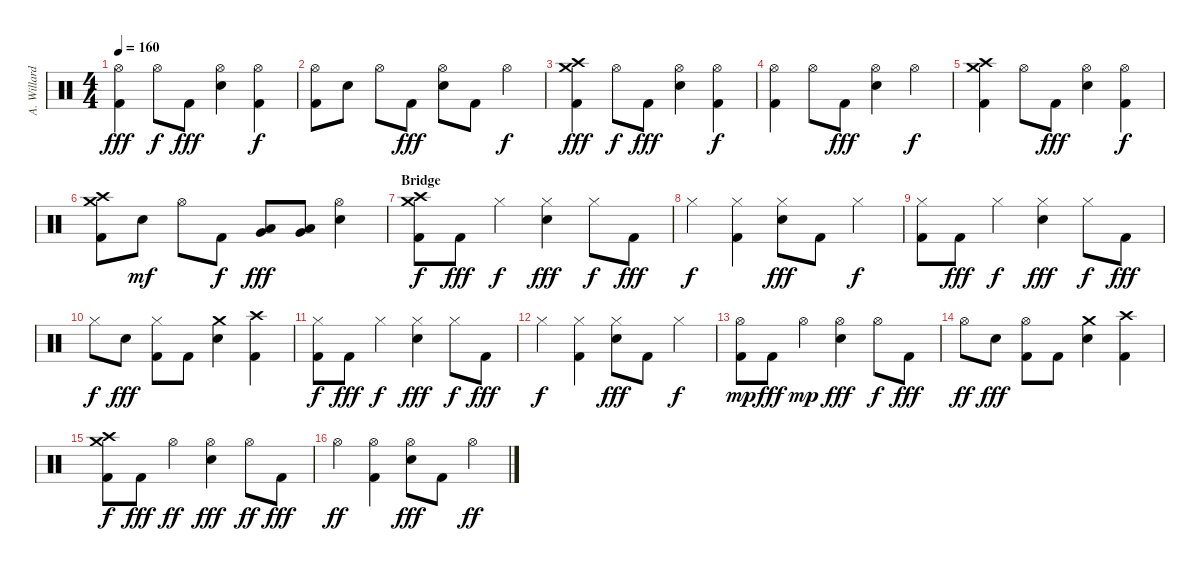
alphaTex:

\track ("A. Willard (Drums)" "A. Willard") {instrument percussion}
\staff {score}
\articulation defaults
\ts (4 4)
\tempo 160
\clef neutral
\ks c
("Hi-Hat (open)" "Kick (hit) 2").4{dy fff} "Hi-Hat (open)".8{dy f} "Kick (hit) 2".8{dy fff} ("Hi-Hat (open)" "Electric Snare (hit)").4 ("Hi-Hat (open)" "Kick (hit) 2").4{dy f} |
("Hi-Hat (open)" "Kick (hit) 2").8 "Electric Snare (hit)".8 "Hi-Hat (open)".8 "Kick (hit) 2".8{dy fff} ("Hi-Hat (open)" "Electric Snare (hit)").8 "Kick (hit) 2".8 "Hi-Hat (open)".4{dy f} |
("Crash high (hit)" "Kick (hit) 2" "Crash medium (hit)").4{dy fff} "Hi-Hat (open)".8{dy f} "Kick (hit) 2".8{dy fff} ("Hi-Hat (open)" "Electric Snare (hit)").4 ("Hi-Hat (open)" "Kick (hit) 2").4{dy f} |
("Hi-Hat (open)" "Kick (hit) 2").4 "Hi-Hat (open)".8 "Kick (hit) 2".8{dy fff} ("Hi-Hat (open)" "Electric Snare (hit)").4 "Hi-Hat (open)".4{dy f} |
("Crash high (hit)" "Kick (hit) 2" "Crash medium (hit)").4 "Hi-Hat (open)".8 "Kick (hit) 2".8{dy fff} ("Hi-Hat (open)" "Electric Snare (hit)").4 ("Hi-Hat (open)" "Kick (hit) 2").4{dy f} |
("Crash high (hit)" "Kick (hit) 2" "Crash medium (hit)").8 "Electric Snare (hit)".8{dy mf} "Hi-Hat (open)".8 "Kick (hit) 2".8{dy f} ("Very Low Tom (hit)" "Low Floor Tom (hit)").8{dy fff} ("Very Low Tom (hit)" "Low Floor Tom (hit)").8 ("Hi-Hat (open)" "Electric Snare (hit)").4 |
\section ("" "Bridge")
("Crash high (hit)" "Kick (hit) 2" "Crash medium (hit)").8{dy f} "Kick (hit) 2".8{dy fff} "Hi-Hat (closed)".4{dy f} ("Hi-Hat (closed)" "Electric Snare (hit)").4{dy fff} "Hi-Hat (closed)".8{dy f} "Kick (hit) 2".8{dy fff} |
"Hi-Hat (closed)".4{dy f} ("Hi-Hat (closed)" "Kick (hit) 2").4 ("Hi-Hat (closed)" "Electric Snare (hit)").8{dy fff} "Kick (hit) 2".8 "Hi-Hat (closed)".4{dy f} |
("Hi-Hat (closed)" "Kick (hit) 2").8 "Kick (hit) 2".8{dy fff} "Hi-Hat (closed)".4{dy f} ("Hi-Hat (closed)" "Electric Snare (hit)").4{dy fff} "Hi-Hat (closed)".8{dy f} "Kick (hit) 2".8{dy fff} |
"Hi-Hat (closed)".8{dy f} "Electric Snare (hit)".8{dy fff} ("Hi-Hat (closed)" "Kick (hit) 2").8 "Kick (hit) 2".8 ("Crash medium (hit)" "Electric Snare (hit)").4 ("Crash high (hit)" "Kick (hit) 2").4 |
("Hi-Hat (closed)" "Kick (hit) 2").8{dy f} "Kick (hit) 2".8{dy fff} "Hi-Hat (closed)".4{dy f} ("Hi-Hat (closed)" "Electric Snare (hit)").4{dy fff} "Hi-Hat (closed)".8{dy f} "Kick (hit) 2".8{dy fff} |
"Hi-Hat (closed)".4{dy f} ("Hi-Hat (closed)" "Kick (hit) 2").4 ("Hi-Hat (closed)" "Electric Snare (hit)").8{dy fff} "Kick (hit) 2".8 "Hi-Hat (closed)".4{dy f} |
("Hi-Hat (open)" "Kick (hit) 2").8{dy mp} "Kick (hit) 2".8{dy fff} "Hi-Hat (open)".4{dy mp} ("Hi-Hat (open)" "Electric Snare (hit)").4{dy fff} "Hi-Hat (open)".8{dy f} "Kick (hit) 2".8{dy fff} |
"Hi-Hat (open)".8{dy ff} "Electric Snare (hit)".8{dy fff} ("Hi-Hat (open)" "Kick (hit) 2").8 "Kick (hit) 2".8 ("Crash medium (hit)" "Electric Snare (hit)").4 ("Crash high (hit)" "Kick (hit) 2").4 |
\section ("" "")
("Crash high (hit)" "Kick (hit) 2" "Crash medium (hit)").8{dy f} "Kick (hit) 2".8{dy fff} "Hi-Hat (open)".4{dy ff} ("Hi-Hat (open)" "Electric Snare (hit)").4{dy fff} "Hi-Hat (open)".8{dy ff} "Kick (hit) 2".8{dy fff} |
"Hi-Hat (open)".4{dy ff} ("Hi-Hat (open)" "Kick (hit) 2").4 ("Hi-Hat (open)" "Electric Snare (hit)").8{dy fff} "Kick (hit) 2".8 "Hi-Hat (open)".4{dy ff}
